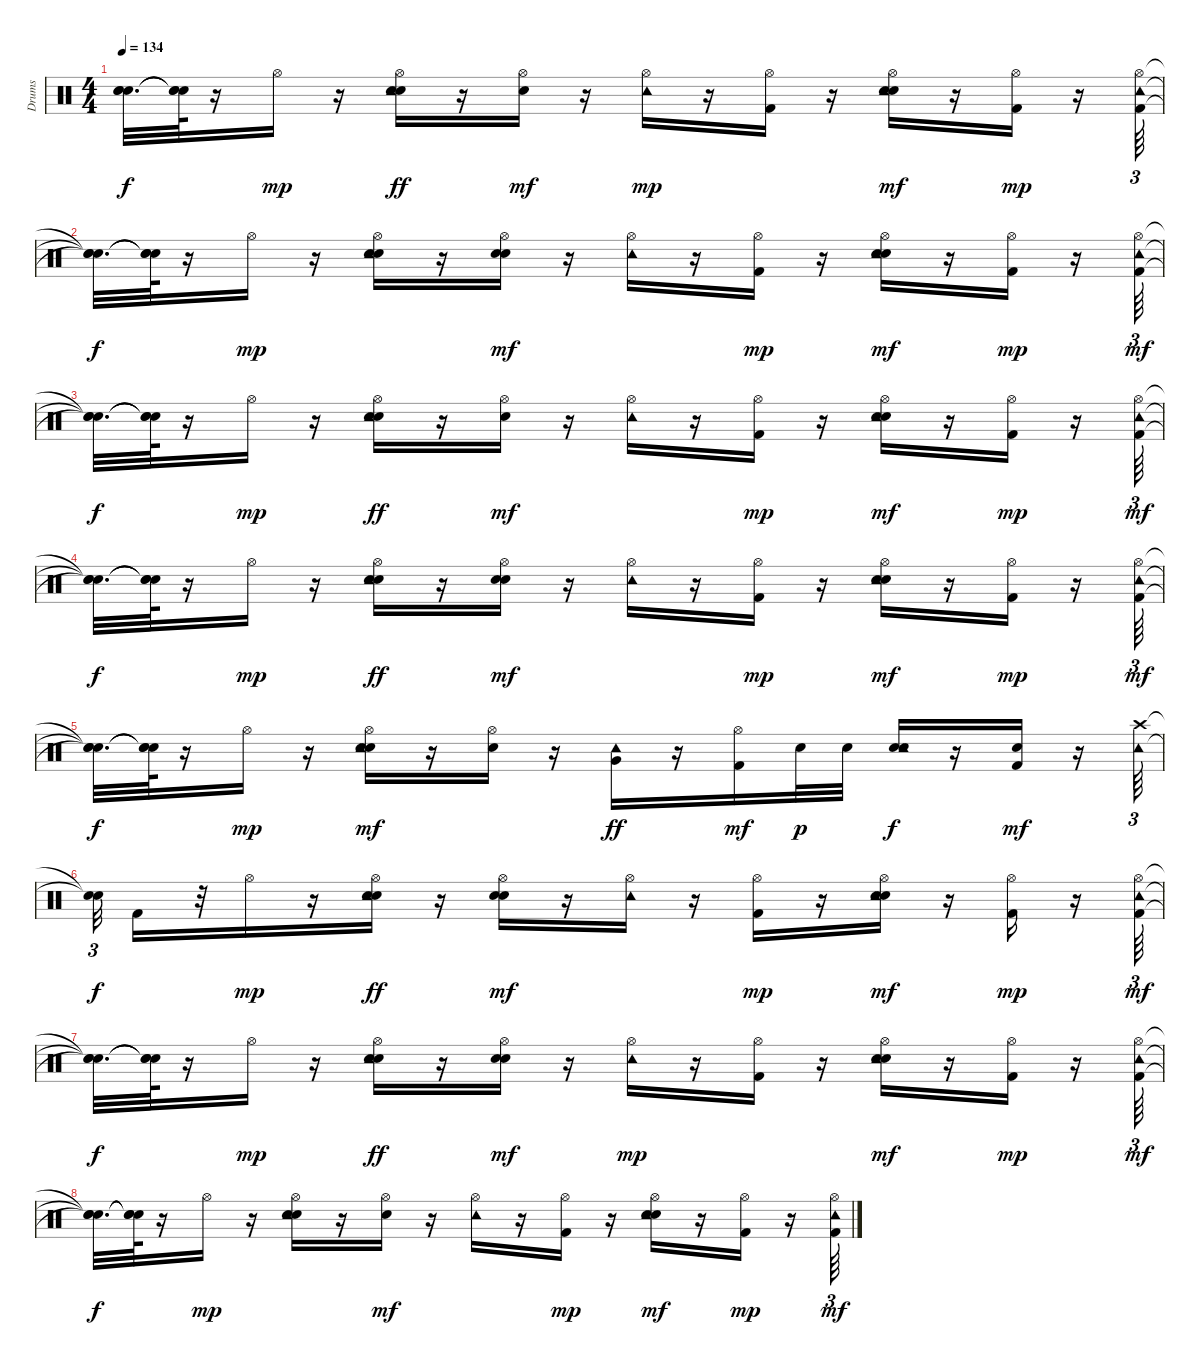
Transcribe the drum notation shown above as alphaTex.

\track ("Drums" "Drums") {instrument percussion}
\staff {score}
\articulation defaults
\ts (4 4)
\tempo 134
\clef neutral
\ks c
("Snare (hit)"{t} "Snare (hit)"{t} "Snare (hit)"{t}).32{d dy f} ("Snare (hit)"{t} "Snare (hit)"{t} "Snare (hit)"{t}).64 r.16 "Hi-Hat (open)".16{dy mp} r.16 ("Hi-Hat (open)" "Snare (hit) 2" "Hand Clap (hit)" "Tambourine (hit)").16{dy ff} r.16 ("Hi-Hat (open)" "Hand Clap (hit)").16{dy mf} r.16 ("Tambourine (hit)" "Hi-Hat (open)").16{dy mp} r.16 ("Kick (hit) 2" "Hi-Hat (open)").16 r.16 ("Hi-Hat (open)" "Snare (hit) 2" "Hand Clap (hit)" "Tambourine (hit)").16{dy mf} r.16 ("Kick (hit) 2" "Hi-Hat (open)").16{dy mp} r.16 ("Tambourine (hit)" "Kick (hit) 2" "Hi-Hat (open)").64{tu (3 2)} |
("Snare (hit)"{t} "Snare (hit)"{t} "Snare (hit)"{t}).32{d dy f} ("Snare (hit)"{t} "Snare (hit)"{t} "Snare (hit)"{t}).64 r.16 "Hi-Hat (open)".16{dy mp} r.16 ("Hand Clap (hit)" "Hi-Hat (open)" "Snare (hit) 2" "Tambourine (hit)").16 r.16 ("Hi-Hat (open)" "Snare (hit) 2" "Hand Clap (hit)").16{dy mf} r.16 ("Hi-Hat (open)" "Tambourine (hit)").16 r.16 ("Kick (hit) 2" "Hi-Hat (open)").16{dy mp} r.16 ("Hi-Hat (open)" "Hand Clap (hit)" "Tambourine (hit)" "Snare (hit) 2").16{dy mf} r.16 ("Kick (hit) 2" "Hi-Hat (open)").16{dy mp} r.16 ("Kick (hit) 2" "Hi-Hat (open)" "Tambourine (hit)").64{tu (3 2) dy mf} |
("Snare (hit)"{t} "Snare (hit)"{t} "Snare (hit)"{t}).32{d dy f} ("Snare (hit)"{t} "Snare (hit)"{t} "Snare (hit)"{t}).64 r.16 "Hi-Hat (open)".16{dy mp} r.16 ("Hi-Hat (open)" "Snare (hit) 2" "Hand Clap (hit)" "Tambourine (hit)").16{dy ff} r.16 ("Hi-Hat (open)" "Hand Clap (hit)").16{dy mf} r.16 ("Hi-Hat (open)" "Tambourine (hit)").16 r.16 ("Kick (hit) 2" "Hi-Hat (open)").16{dy mp} r.16 ("Hi-Hat (open)" "Snare (hit) 2" "Hand Clap (hit)" "Tambourine (hit)").16{dy mf} r.16 ("Kick (hit) 2" "Hi-Hat (open)").16{dy mp} r.16 ("Kick (hit) 2" "Tambourine (hit)" "Hi-Hat (open)").64{tu (3 2) dy mf} |
("Snare (hit)"{t} "Snare (hit)"{t} "Snare (hit)"{t}).32{d dy f} ("Snare (hit)"{t} "Snare (hit)"{t} "Snare (hit)"{t}).64 r.16 "Hi-Hat (open)".16{dy mp} r.16 ("Hi-Hat (open)" "Snare (hit) 2" "Hand Clap (hit)" "Tambourine (hit)").16{dy ff} r.16 ("Hi-Hat (open)" "Snare (hit) 2" "Hand Clap (hit)").16{dy mf} r.16 ("Hi-Hat (open)" "Tambourine (hit)").16 r.16 ("Kick (hit) 2" "Hi-Hat (open)").16{dy mp} r.16 ("Hi-Hat (open)" "Snare (hit) 2" "Hand Clap (hit)" "Tambourine (hit)").16{dy mf} r.16 ("Kick (hit) 2" "Hi-Hat (open)").16{dy mp} r.16 ("Kick (hit) 2" "Hi-Hat (open)" "Tambourine (hit)").64{tu (3 2) dy mf} |
("Snare (hit)"{t} "Snare (hit)"{t} "Snare (hit)"{t}).32{d dy f} ("Snare (hit)"{t} "Snare (hit)"{t} "Snare (hit)"{t}).64 r.16 "Hi-Hat (open)".16{dy mp} r.16 ("Snare (hit) 2" "Hand Clap (hit)" "Tambourine (hit)" "Hi-Hat (open)").16{dy mf} r.16 ("Hi-Hat (open)" "Hand Clap (hit)").16 r.16 ("Tambourine (hit)" "Very Low Tom (hit)").16{dy ff} r.16 ("Kick (hit) 2" "Hi-Hat (open)").16{dy mf} "Snare (hit) 2".32{dy p} "Snare (hit) 2".32 ("Snare (hit) 2" "Hand Clap (hit)" "Tambourine (hit)").16{dy f} r.16 ("Kick (hit) 2" "Snare (hit) 2").16{dy mf} r.16 ("Tambourine (hit)" "Crash high (hit)").64{tu (3 2)} |
("Snare (hit)"{t} "Snare (hit)"{t}).32{tu (3 2) dy f} "Kick (hit) 2".16 r.32 "Hi-Hat (open)".16{dy mp} r.16 ("Hi-Hat (open)" "Snare (hit) 2" "Hand Clap (hit)" "Tambourine (hit)").16{dy ff} r.16 ("Hi-Hat (open)" "Snare (hit) 2" "Hand Clap (hit)").16{dy mf} r.16 ("Hi-Hat (open)" "Tambourine (hit)").16 r.16 ("Kick (hit) 2" "Hi-Hat (open)").16{dy mp} r.16 ("Hi-Hat (open)" "Snare (hit) 2" "Hand Clap (hit)" "Tambourine (hit)").16{dy mf} r.16 ("Kick (hit) 2" "Hi-Hat (open)").16{dy mp} r.16 ("Kick (hit) 2" "Hi-Hat (open)" "Tambourine (hit)").64{tu (3 2) dy mf} |
("Snare (hit)"{t} "Snare (hit)"{t} "Snare (hit)"{t}).32{d dy f} ("Snare (hit)"{t} "Snare (hit)"{t} "Snare (hit)"{t}).64 r.16 "Hi-Hat (open)".16{dy mp} r.16 ("Hi-Hat (open)" "Snare (hit) 2" "Hand Clap (hit)" "Tambourine (hit)").16{dy ff} r.16 ("Hi-Hat (open)" "Snare (hit) 2" "Hand Clap (hit)").16{dy mf volume 13} r.16 ("Tambourine (hit)" "Hi-Hat (open)").16{dy mp} r.16 ("Kick (hit) 2" "Hi-Hat (open)").16{volume 13} r.16 ("Hi-Hat (open)" "Snare (hit) 2" "Hand Clap (hit)" "Tambourine (hit)").16{dy mf volume 13} r.16 ("Kick (hit) 2" "Hi-Hat (open)").16{dy mp volume 12} r.16 ("Tambourine (hit)" "Kick (hit) 2" "Hi-Hat (open)").64{tu (3 2) dy mf volume 12} |
("Snare (hit)"{t} "Snare (hit)"{t} "Snare (hit)"{t}).32{d dy f} ("Snare (hit)"{t} "Snare (hit)"{t} "Snare (hit)"{t}).64 r.16 "Hi-Hat (open)".16{dy mp volume 12} r.16 ("Hand Clap (hit)" "Tambourine (hit)" "Hi-Hat (open)" "Snare (hit) 2").16{volume 12} r.16 ("Hi-Hat (open)" "Hand Clap (hit)").16{dy mf volume 11} r.16 ("Hi-Hat (open)" "Tambourine (hit)").16{volume 11} r.16 ("Hi-Hat (open)" "Kick (hit) 2").16{dy mp volume 11} r.16 ("Hi-Hat (open)" "Snare (hit) 2" "Hand Clap (hit)" "Tambourine (hit)").16{dy mf volume 10} r.16 ("Kick (hit) 2" "Hi-Hat (open)").16{dy mp volume 10} r.16 ("Kick (hit) 2" "Tambourine (hit)" "Hi-Hat (open)").64{tu (3 2) dy mf volume 10}
